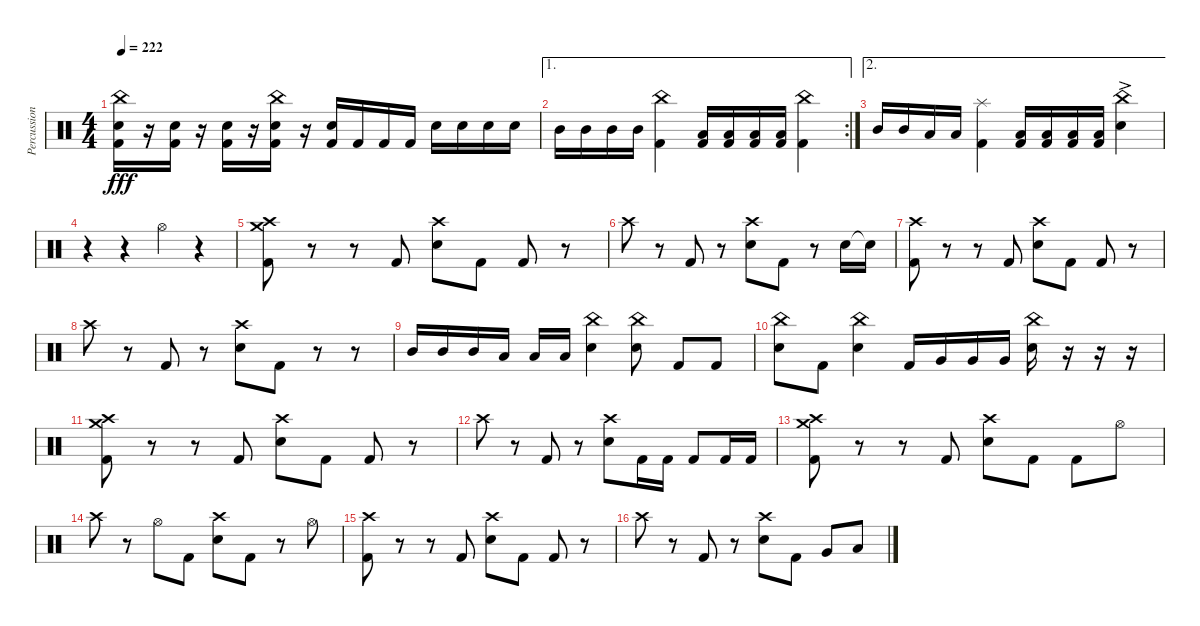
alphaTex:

\track ("Percussion" "Percussion") {instrument percussion}
\staff {score}
\articulation defaults
\ts (4 4)
\tempo 222
\clef neutral
\ks c
("Kick (hit) 2" "Electric Snare (hit)" "China (hit)").16{dy fff} r.16 ("Kick (hit) 2" "Electric Snare (hit)").16 r.16 ("Kick (hit) 2" "Electric Snare (hit)").16 r.16 ("Kick (hit) 2" "Electric Snare (hit)" "China (hit)").16 r.16 ("Kick (hit) 2" "Electric Snare (hit)").16 "Kick (hit) 2".16 "Kick (hit) 2".16 "Kick (hit) 2".16 "Electric Snare (hit)".16 "Electric Snare (hit)".16 "Electric Snare (hit)".16 "Electric Snare (hit)".16 |
\ae 1
\rc 2 "Mid Tom (hit)".16 "Mid Tom (hit)".16 "Mid Tom (hit)".16 "Mid Tom (hit)".16
("Kick (hit) 2" "China (hit)").4 ("Kick (hit) 2" "Low Tom (hit)").16 ("Kick (hit) 2" "Low Tom (hit)").16 ("Kick (hit) 2" "Low Tom (hit)").16 ("Kick (hit) 2" "Low Tom (hit)").16 ("Kick (hit) 2" "China (hit)").4 |
\ae 2 "Mid Tom (hit)".16 "Mid Tom (hit)".16 "Low Tom (hit)".16 "Low Tom (hit)".16
("Kick (hit) 2" "Splash (hit)").4 ("Kick (hit) 2" "Low Tom (hit)").16 ("Kick (hit) 2" "Low Tom (hit)").16 ("Kick (hit) 2" "Low Tom (hit)").16 ("Kick (hit) 2" "Low Tom (hit)").16 ("Electric Snare (hit)"{ac} "China (hit)").4 |
r.4 r.4 "Hi-Hat (open)".4 r.4 |
("Kick (hit) 2" "Crash high (hit)" "Crash medium (hit)").8 r.8 r.8 "Kick (hit) 2".8 ("Electric Snare (hit)" "Crash high (hit)").8 "Kick (hit) 2".8 "Kick (hit) 2".8 r.8 |
"Crash high (hit)".8 r.8 "Kick (hit) 2".8 r.8 ("Electric Snare (hit)" "Crash high (hit)").8 "Kick (hit) 2".8 r.8 "Electric Snare (hit)".16 "Electric Snare (hit)"{t}.16 |
("Kick (hit) 2" "Crash high (hit)").8 r.8 r.8 "Kick (hit) 2".8 ("Electric Snare (hit)" "Crash high (hit)").8 "Kick (hit) 2".8 "Kick (hit) 2".8 r.8 |
"Crash high (hit)".8 r.8 "Kick (hit) 2".8 r.8 ("Electric Snare (hit)" "Crash high (hit)").8 "Kick (hit) 2".8 r.8 r.8 |
"Mid Tom (hit)".16 "Mid Tom (hit)".16 "Mid Tom (hit)".16 "Low Tom (hit)".16 "Low Tom (hit)".16 "Low Tom (hit)".16 ("Electric Snare (hit)" "China (hit)").4 ("Electric Snare (hit)" "China (hit)").8 "Kick (hit) 2".8 "Kick (hit) 2".8 |
("Electric Snare (hit)" "China (hit)").8 "Kick (hit) 2".8 ("Electric Snare (hit)" "China (hit)").4 "Kick (hit) 2".16 "Very Low Tom (hit)".16 "Very Low Tom (hit)".16 "Very Low Tom (hit)".16 ("Electric Snare (hit)" "China (hit)").16 r.16 r.16 r.16 |
("Kick (hit) 2" "Crash medium (hit)" "Crash high (hit)").8 r.8 r.8 "Kick (hit) 2".8 ("Electric Snare (hit)" "Crash high (hit)").8 "Kick (hit) 2".8 "Kick (hit) 2".8 r.8 |
"Crash high (hit)".8 r.8 "Kick (hit) 2".8 r.8 ("Electric Snare (hit)" "Crash high (hit)").8 "Kick (hit) 2".16 "Kick (hit) 2".16 "Kick (hit) 2".8 "Kick (hit) 2".16 "Kick (hit) 2".16 |
("Kick (hit) 2" "Crash medium (hit)" "Crash high (hit)").8 r.8 r.8 "Kick (hit) 2".8 ("Electric Snare (hit)" "Crash high (hit)").8 "Kick (hit) 2".8 "Kick (hit) 2".8 "Hi-Hat (open)".8 |
"Crash high (hit)".8 r.8 "Hi-Hat (open)".8 "Kick (hit) 2".8 ("Electric Snare (hit)" "Crash high (hit)").8 "Kick (hit) 2".8 r.8 "Hi-Hat (open)".8 |
("Kick (hit) 2" "Crash high (hit)").8 r.8 r.8 "Kick (hit) 2".8 ("Electric Snare (hit)" "Crash high (hit)").8 "Kick (hit) 2".8 "Kick (hit) 2".8 r.8 |
"Crash high (hit)".8 r.8 "Kick (hit) 2".8 r.8 ("Electric Snare (hit)" "Crash high (hit)").8 "Kick (hit) 2".8 "Very Low Tom (hit)".8 "Low Floor Tom (hit)".8
